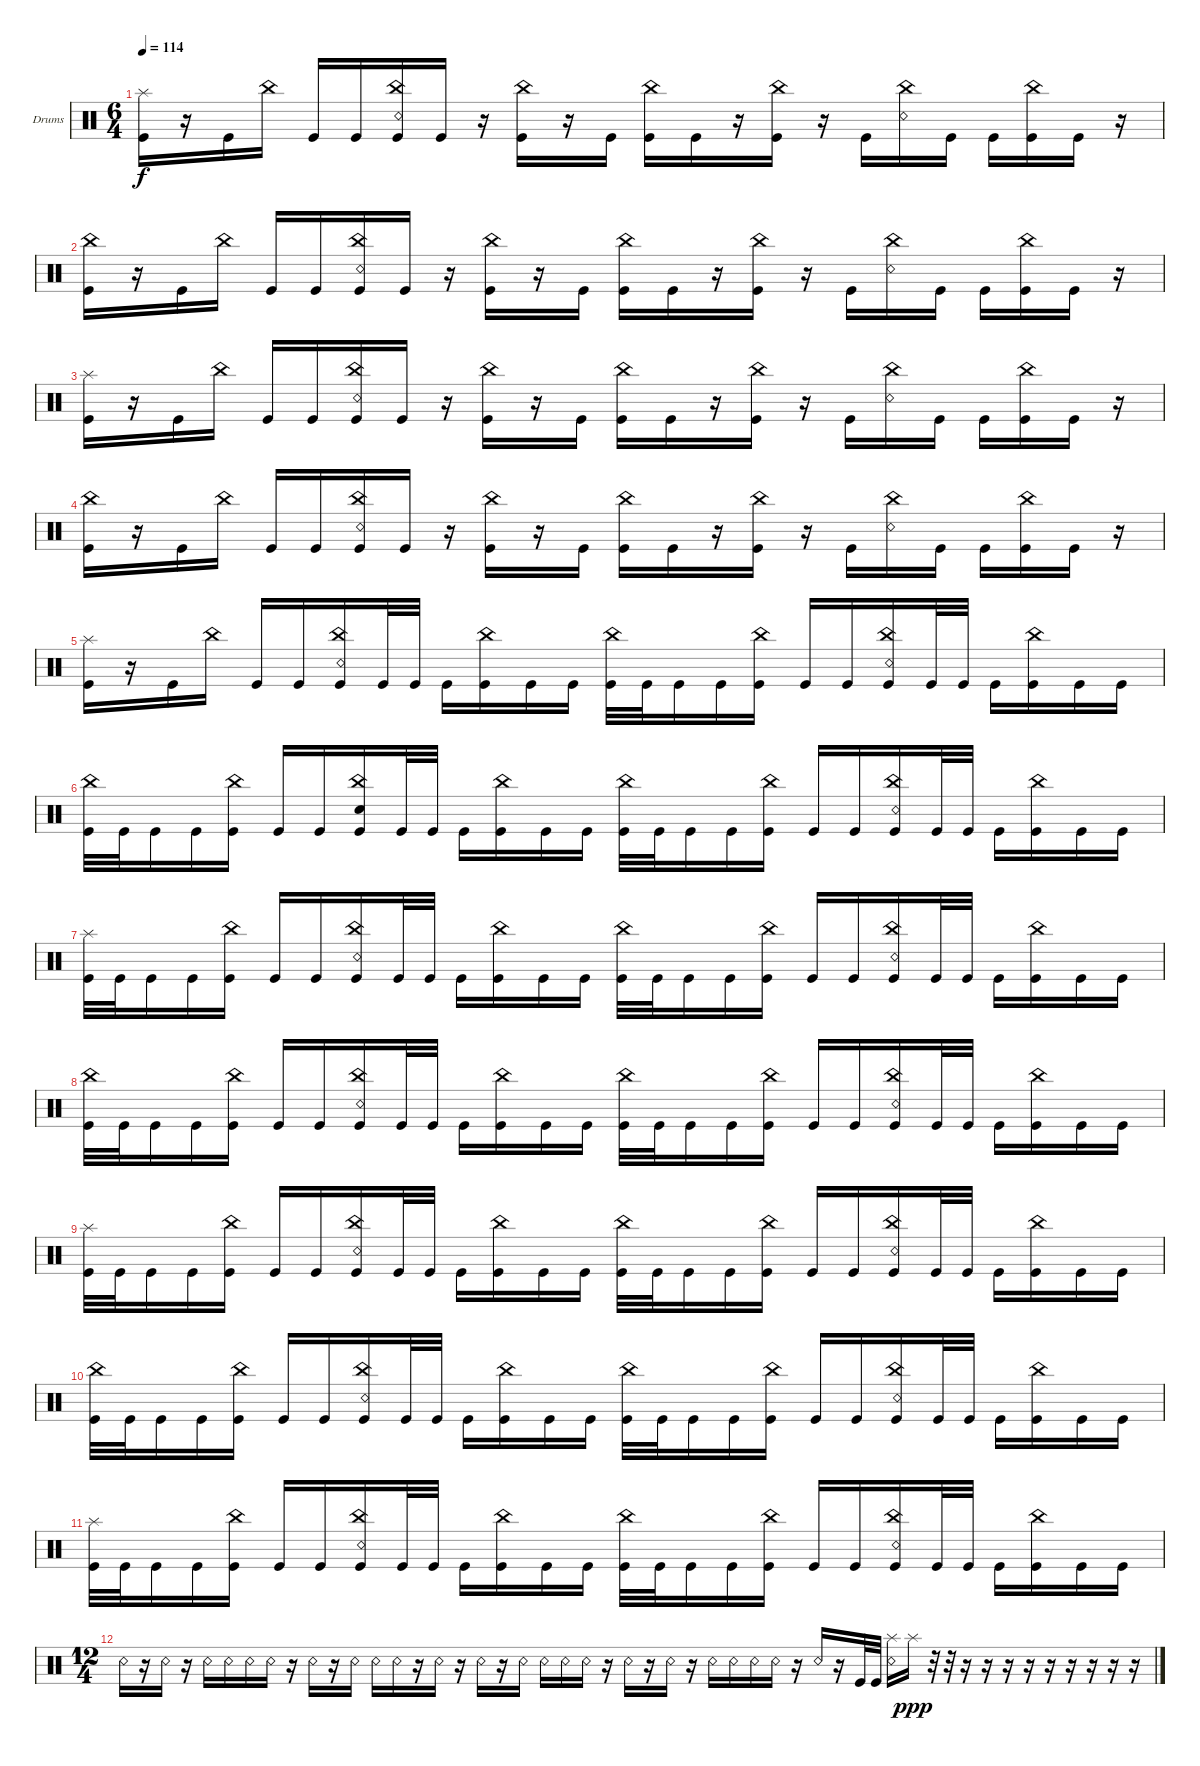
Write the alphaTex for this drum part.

\bracketExtendMode groupsimilarinstruments
\firstSystemTrackNameOrientation horizontal
\otherSystemsTrackNameOrientation horizontal
\track ("Drumkit" "Drums") {instrument percussion}
\staff {score}
\articulation defaults
\ts (6 4)
\tempo 114
\clef neutral
\ks c
("Splash (hit)" "Kick (hit)").16{dy f} r.16 "Kick (hit)".16 "China (hit)".16 "Kick (hit)".16 "Kick (hit)".16 ("China (hit)" "Snare (rim shot)" "Kick (hit)").16 "Kick (hit)".16 r.16 ("China (hit)" "Kick (hit)").16 r.16 "Kick (hit)".16 ("China (hit)" "Kick (hit)").16 "Kick (hit)".16 r.16 ("China (hit)" "Kick (hit)").16 r.16 "Kick (hit)".16 ("China (hit)" "Snare (rim shot)").16 "Kick (hit)".16 "Kick (hit)".16 ("China (hit)" "Kick (hit)").16 "Kick (hit)".16 r.16 |
("China (hit)" "Kick (hit)").16 r.16 "Kick (hit)".16 "China (hit)".16 "Kick (hit)".16 "Kick (hit)".16 ("China (hit)" "Snare (rim shot)" "Kick (hit)").16 "Kick (hit)".16 r.16 ("China (hit)" "Kick (hit)").16 r.16 "Kick (hit)".16 ("China (hit)" "Kick (hit)").16 "Kick (hit)".16 r.16 ("China (hit)" "Kick (hit)").16 r.16 "Kick (hit)".16 ("China (hit)" "Snare (rim shot)").16 "Kick (hit)".16 "Kick (hit)".16 ("China (hit)" "Kick (hit)").16 "Kick (hit)".16 r.16 |
("Splash (hit)" "Kick (hit)").16 r.16 "Kick (hit)".16 "China (hit)".16 "Kick (hit)".16 "Kick (hit)".16 ("China (hit)" "Snare (rim shot)" "Kick (hit)").16 "Kick (hit)".16 r.16 ("China (hit)" "Kick (hit)").16 r.16 "Kick (hit)".16 ("China (hit)" "Kick (hit)").16 "Kick (hit)".16 r.16 ("China (hit)" "Kick (hit)").16 r.16 "Kick (hit)".16 ("China (hit)" "Snare (rim shot)").16 "Kick (hit)".16 "Kick (hit)".16 ("China (hit)" "Kick (hit)").16 "Kick (hit)".16 r.16 |
("China (hit)" "Kick (hit)").16 r.16 "Kick (hit)".16 "China (hit)".16 "Kick (hit)".16 "Kick (hit)".16 ("China (hit)" "Snare (rim shot)" "Kick (hit)").16 "Kick (hit)".16 r.16 ("China (hit)" "Kick (hit)").16 r.16 "Kick (hit)".16 ("China (hit)" "Kick (hit)").16 "Kick (hit)".16 r.16 ("China (hit)" "Kick (hit)").16 r.16 "Kick (hit)".16 ("China (hit)" "Snare (rim shot)").16 "Kick (hit)".16 "Kick (hit)".16 ("China (hit)" "Kick (hit)").16 "Kick (hit)".16 r.16 |
("Splash (hit)" "Kick (hit)").16 r.16 "Kick (hit)".16 "China (hit)".16 "Kick (hit)".16 "Kick (hit)".16 ("China (hit)" "Snare (rim shot)" "Kick (hit)").16 "Kick (hit)".32 "Kick (hit)".32 "Kick (hit)".16 ("China (hit)" "Kick (hit)").16 "Kick (hit)".16 "Kick (hit)".16 ("China (hit)" "Kick (hit)").32 "Kick (hit)".32 "Kick (hit)".16 "Kick (hit)".16 ("China (hit)" "Kick (hit)").16 "Kick (hit)".16 "Kick (hit)".16 ("China (hit)" "Snare (rim shot)" "Kick (hit)").16 "Kick (hit)".32 "Kick (hit)".32 "Kick (hit)".16 ("China (hit)" "Kick (hit)").16 "Kick (hit)".16 "Kick (hit)".16 |
("China (hit)" "Kick (hit)").32 "Kick (hit)".32 "Kick (hit)".16 "Kick (hit)".16 ("China (hit)" "Kick (hit)").16 "Kick (hit)".16 "Kick (hit)".16 ("China (hit)" "Snare (hit) 2" "Kick (hit)").16 "Kick (hit)".32 "Kick (hit)".32 "Kick (hit)".16 ("China (hit)" "Kick (hit)").16 "Kick (hit)".16 "Kick (hit)".16 ("China (hit)" "Kick (hit)").32 "Kick (hit)".32 "Kick (hit)".16 "Kick (hit)".16 ("China (hit)" "Kick (hit)").16 "Kick (hit)".16 "Kick (hit)".16 ("China (hit)" "Snare (rim shot)" "Kick (hit)").16 "Kick (hit)".32 "Kick (hit)".32 "Kick (hit)".16 ("China (hit)" "Kick (hit)").16 "Kick (hit)".16 "Kick (hit)".16 |
("Splash (hit)" "Kick (hit)").32 "Kick (hit)".32 "Kick (hit)".16 "Kick (hit)".16 ("China (hit)" "Kick (hit)").16 "Kick (hit)".16 "Kick (hit)".16 ("China (hit)" "Snare (rim shot)" "Kick (hit)").16 "Kick (hit)".32 "Kick (hit)".32 "Kick (hit)".16 ("China (hit)" "Kick (hit)").16 "Kick (hit)".16 "Kick (hit)".16 ("China (hit)" "Kick (hit)").32 "Kick (hit)".32 "Kick (hit)".16 "Kick (hit)".16 ("China (hit)" "Kick (hit)").16 "Kick (hit)".16 "Kick (hit)".16 ("China (hit)" "Snare (rim shot)" "Kick (hit)").16 "Kick (hit)".32 "Kick (hit)".32 "Kick (hit)".16 ("China (hit)" "Kick (hit)").16 "Kick (hit)".16 "Kick (hit)".16 |
("China (hit)" "Kick (hit)").32 "Kick (hit)".32 "Kick (hit)".16 "Kick (hit)".16 ("China (hit)" "Kick (hit)").16 "Kick (hit)".16 "Kick (hit)".16 ("China (hit)" "Snare (rim shot)" "Kick (hit)").16 "Kick (hit)".32 "Kick (hit)".32 "Kick (hit)".16 ("China (hit)" "Kick (hit)").16 "Kick (hit)".16 "Kick (hit)".16 ("China (hit)" "Kick (hit)").32 "Kick (hit)".32 "Kick (hit)".16 "Kick (hit)".16 ("China (hit)" "Kick (hit)").16 "Kick (hit)".16 "Kick (hit)".16 ("China (hit)" "Snare (rim shot)" "Kick (hit)").16 "Kick (hit)".32 "Kick (hit)".32 "Kick (hit)".16 ("China (hit)" "Kick (hit)").16 "Kick (hit)".16 "Kick (hit)".16 |
("Splash (hit)" "Kick (hit)").32 "Kick (hit)".32 "Kick (hit)".16 "Kick (hit)".16 ("China (hit)" "Kick (hit)").16 "Kick (hit)".16 "Kick (hit)".16 ("China (hit)" "Snare (rim shot)" "Kick (hit)").16 "Kick (hit)".32 "Kick (hit)".32 "Kick (hit)".16 ("China (hit)" "Kick (hit)").16 "Kick (hit)".16 "Kick (hit)".16 ("China (hit)" "Kick (hit)").32 "Kick (hit)".32 "Kick (hit)".16 "Kick (hit)".16 ("China (hit)" "Kick (hit)").16 "Kick (hit)".16 "Kick (hit)".16 ("China (hit)" "Snare (rim shot)" "Kick (hit)").16 "Kick (hit)".32 "Kick (hit)".32 "Kick (hit)".16 ("China (hit)" "Kick (hit)").16 "Kick (hit)".16 "Kick (hit)".16 |
("China (hit)" "Kick (hit)").32 "Kick (hit)".32 "Kick (hit)".16 "Kick (hit)".16 ("China (hit)" "Kick (hit)").16 "Kick (hit)".16 "Kick (hit)".16 ("China (hit)" "Snare (rim shot)" "Kick (hit)").16 "Kick (hit)".32 "Kick (hit)".32 "Kick (hit)".16 ("China (hit)" "Kick (hit)").16 "Kick (hit)".16 "Kick (hit)".16 ("China (hit)" "Kick (hit)").32 "Kick (hit)".32 "Kick (hit)".16 "Kick (hit)".16 ("China (hit)" "Kick (hit)").16 "Kick (hit)".16 "Kick (hit)".16 ("China (hit)" "Snare (rim shot)" "Kick (hit)").16 "Kick (hit)".32 "Kick (hit)".32 "Kick (hit)".16 ("China (hit)" "Kick (hit)").16 "Kick (hit)".16 "Kick (hit)".16 |
("Splash (hit)" "Kick (hit)").32 "Kick (hit)".32 "Kick (hit)".16 "Kick (hit)".16 ("China (hit)" "Kick (hit)").16 "Kick (hit)".16 "Kick (hit)".16 ("China (hit)" "Snare (rim shot)" "Kick (hit)").16 "Kick (hit)".32 "Kick (hit)".32 "Kick (hit)".16 ("China (hit)" "Kick (hit)").16 "Kick (hit)".16 "Kick (hit)".16 ("China (hit)" "Kick (hit)").32 "Kick (hit)".32 "Kick (hit)".16 "Kick (hit)".16 ("China (hit)" "Kick (hit)").16 "Kick (hit)".16 "Kick (hit)".16 ("China (hit)" "Snare (rim shot)" "Kick (hit)").16 "Kick (hit)".32 "Kick (hit)".32 "Kick (hit)".16 ("China (hit)" "Kick (hit)").16 "Kick (hit)".16 "Kick (hit)".16 |
\ts (12 4)
"Snare (rim shot)".16 r.16 "Snare (rim shot)".16 r.16 "Snare (rim shot)".16 "Snare (rim shot)".16 "Snare (rim shot)".16 "Snare (rim shot)".16 r.16 "Snare (rim shot)".16 r.16 "Snare (rim shot)".16 "Snare (rim shot)".16 "Snare (rim shot)".16 r.16 "Snare (rim shot)".16 r.16 "Snare (rim shot)".16 r.16 "Snare (rim shot)".16 "Snare (rim shot)".16 "Snare (rim shot)".16 "Snare (rim shot)".16 r.16 "Snare (rim shot)".16 r.16 "Snare (rim shot)".16 r.16 "Snare (rim shot)".16 "Snare (rim shot)".16 "Snare (rim shot)".16 "Snare (rim shot)".16 r.16 "Snare (rim shot)".16 r.16 "Kick (hit)".32 "Kick (hit)".32 ("Splash (hit)" "Snare (rim shot)").16 "Splash (hit)".16{dy ppp} r.32 r.32 r.16 r.16 r.16 r.16 r.16 r.16 r.16 r.16 r.16
